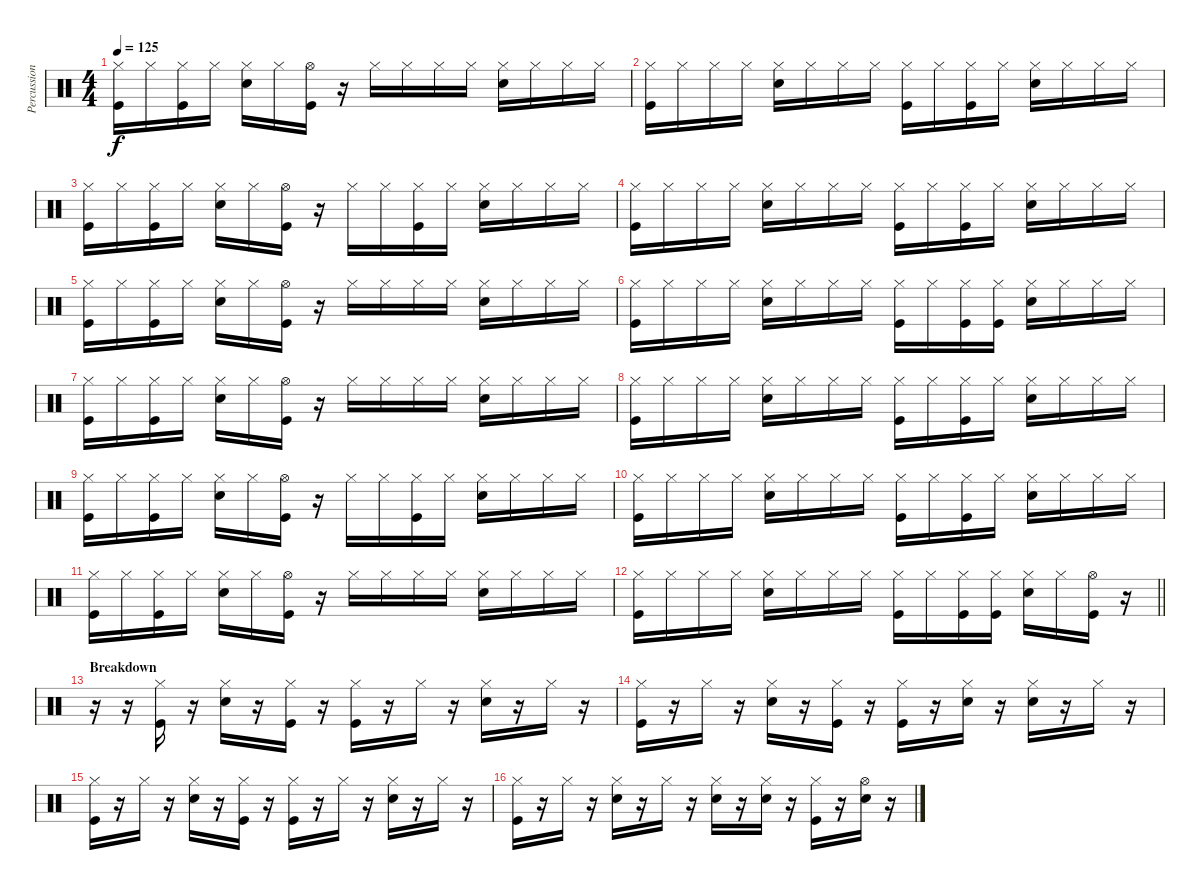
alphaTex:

\track ("Percussion" "Percussion") {instrument percussion bank 177}
\staff {score}
\articulation defaults
\ts (4 4)
\tempo 125
\clef neutral
\ks c
("Hi-Hat (closed)" "Kick (hit)").16{dy f} "Hi-Hat (closed)".16 ("Hi-Hat (closed)" "Kick (hit)").16 "Hi-Hat (closed)".16 ("Hi-Hat (closed)" "Snare (hit) 2").16 "Hi-Hat (closed)".16 ("Hi-Hat (open)" "Kick (hit)").16 r.16 "Hi-Hat (closed)".16 "Hi-Hat (closed)".16 "Hi-Hat (closed)".16 "Hi-Hat (closed)".16 ("Hi-Hat (closed)" "Snare (hit) 2").16 "Hi-Hat (closed)".16 "Hi-Hat (closed)".16 "Hi-Hat (closed)".16 |
("Hi-Hat (closed)" "Kick (hit)").16 "Hi-Hat (closed)".16 "Hi-Hat (closed)".16 "Hi-Hat (closed)".16 ("Hi-Hat (closed)" "Snare (hit) 2").16 "Hi-Hat (closed)".16 "Hi-Hat (closed)".16 "Hi-Hat (closed)".16 ("Hi-Hat (closed)" "Kick (hit)").16 "Hi-Hat (closed)".16 ("Hi-Hat (closed)" "Kick (hit)").16 "Hi-Hat (closed)".16 ("Hi-Hat (closed)" "Snare (hit) 2").16 "Hi-Hat (closed)".16 "Hi-Hat (closed)".16 "Hi-Hat (closed)".16 |
("Hi-Hat (closed)" "Kick (hit)").16 "Hi-Hat (closed)".16 ("Hi-Hat (closed)" "Kick (hit)").16 "Hi-Hat (closed)".16 ("Hi-Hat (closed)" "Snare (hit) 2").16 "Hi-Hat (closed)".16 ("Hi-Hat (open)" "Kick (hit)").16 r.16 "Hi-Hat (closed)".16 "Hi-Hat (closed)".16 ("Hi-Hat (closed)" "Kick (hit)").16 "Hi-Hat (closed)".16 ("Hi-Hat (closed)" "Snare (hit) 2").16 "Hi-Hat (closed)".16 "Hi-Hat (closed)".16 "Hi-Hat (closed)".16 |
("Hi-Hat (closed)" "Kick (hit)").16 "Hi-Hat (closed)".16 "Hi-Hat (closed)".16 "Hi-Hat (closed)".16 ("Hi-Hat (closed)" "Snare (hit) 2").16 "Hi-Hat (closed)".16 "Hi-Hat (closed)".16 "Hi-Hat (closed)".16 ("Hi-Hat (closed)" "Kick (hit)").16 "Hi-Hat (closed)".16 ("Hi-Hat (closed)" "Kick (hit)").16 "Hi-Hat (closed)".16 ("Hi-Hat (closed)" "Snare (hit) 2").16 "Hi-Hat (closed)".16 "Hi-Hat (closed)".16 "Hi-Hat (closed)".16 |
("Hi-Hat (closed)" "Kick (hit)").16 "Hi-Hat (closed)".16 ("Hi-Hat (closed)" "Kick (hit)").16 "Hi-Hat (closed)".16 ("Hi-Hat (closed)" "Snare (hit) 2").16 "Hi-Hat (closed)".16 ("Hi-Hat (open)" "Kick (hit)").16 r.16 "Hi-Hat (closed)".16 "Hi-Hat (closed)".16 "Hi-Hat (closed)".16 "Hi-Hat (closed)".16 ("Hi-Hat (closed)" "Snare (hit) 2").16 "Hi-Hat (closed)".16 "Hi-Hat (closed)".16 "Hi-Hat (closed)".16 |
("Hi-Hat (closed)" "Kick (hit)").16 "Hi-Hat (closed)".16 "Hi-Hat (closed)".16 "Hi-Hat (closed)".16 ("Hi-Hat (closed)" "Snare (hit) 2").16 "Hi-Hat (closed)".16 "Hi-Hat (closed)".16 "Hi-Hat (closed)".16 ("Hi-Hat (closed)" "Kick (hit)").16 "Hi-Hat (closed)".16 ("Hi-Hat (closed)" "Kick (hit)").16 ("Hi-Hat (closed)" "Kick (hit)").16 ("Hi-Hat (closed)" "Snare (hit) 2").16 "Hi-Hat (closed)".16 "Hi-Hat (closed)".16 "Hi-Hat (closed)".16 |
("Hi-Hat (closed)" "Kick (hit)").16 "Hi-Hat (closed)".16 ("Hi-Hat (closed)" "Kick (hit)").16 "Hi-Hat (closed)".16 ("Hi-Hat (closed)" "Snare (hit) 2").16 "Hi-Hat (closed)".16 ("Hi-Hat (open)" "Kick (hit)").16 r.16 "Hi-Hat (closed)".16 "Hi-Hat (closed)".16 "Hi-Hat (closed)".16 "Hi-Hat (closed)".16 ("Hi-Hat (closed)" "Snare (hit) 2").16 "Hi-Hat (closed)".16 "Hi-Hat (closed)".16 "Hi-Hat (closed)".16 |
("Hi-Hat (closed)" "Kick (hit)").16 "Hi-Hat (closed)".16 "Hi-Hat (closed)".16 "Hi-Hat (closed)".16 ("Hi-Hat (closed)" "Snare (hit) 2").16 "Hi-Hat (closed)".16 "Hi-Hat (closed)".16 "Hi-Hat (closed)".16 ("Hi-Hat (closed)" "Kick (hit)").16 "Hi-Hat (closed)".16 ("Hi-Hat (closed)" "Kick (hit)").16 "Hi-Hat (closed)".16 ("Hi-Hat (closed)" "Snare (hit) 2").16 "Hi-Hat (closed)".16 "Hi-Hat (closed)".16 "Hi-Hat (closed)".16 |
("Hi-Hat (closed)" "Kick (hit)").16 "Hi-Hat (closed)".16 ("Hi-Hat (closed)" "Kick (hit)").16 "Hi-Hat (closed)".16 ("Hi-Hat (closed)" "Snare (hit) 2").16 "Hi-Hat (closed)".16 ("Hi-Hat (open)" "Kick (hit)").16 r.16 "Hi-Hat (closed)".16 "Hi-Hat (closed)".16 ("Hi-Hat (closed)" "Kick (hit)").16 "Hi-Hat (closed)".16 ("Hi-Hat (closed)" "Snare (hit) 2").16 "Hi-Hat (closed)".16 "Hi-Hat (closed)".16 "Hi-Hat (closed)".16 |
("Hi-Hat (closed)" "Kick (hit)").16 "Hi-Hat (closed)".16 "Hi-Hat (closed)".16 "Hi-Hat (closed)".16 ("Hi-Hat (closed)" "Snare (hit) 2").16 "Hi-Hat (closed)".16 "Hi-Hat (closed)".16 "Hi-Hat (closed)".16 ("Hi-Hat (closed)" "Kick (hit)").16 "Hi-Hat (closed)".16 ("Hi-Hat (closed)" "Kick (hit)").16 "Hi-Hat (closed)".16 ("Hi-Hat (closed)" "Snare (hit) 2").16 "Hi-Hat (closed)".16 "Hi-Hat (closed)".16 "Hi-Hat (closed)".16 |
("Hi-Hat (closed)" "Kick (hit)").16 "Hi-Hat (closed)".16 ("Hi-Hat (closed)" "Kick (hit)").16 "Hi-Hat (closed)".16 ("Hi-Hat (closed)" "Snare (hit) 2").16 "Hi-Hat (closed)".16 ("Hi-Hat (open)" "Kick (hit)").16 r.16 "Hi-Hat (closed)".16 "Hi-Hat (closed)".16 "Hi-Hat (closed)".16 "Hi-Hat (closed)".16 ("Hi-Hat (closed)" "Snare (hit) 2").16 "Hi-Hat (closed)".16 "Hi-Hat (closed)".16 "Hi-Hat (closed)".16 |
\barLineRight lightlight
("Hi-Hat (closed)" "Kick (hit)").16 "Hi-Hat (closed)".16 "Hi-Hat (closed)".16 "Hi-Hat (closed)".16 ("Hi-Hat (closed)" "Snare (hit) 2").16 "Hi-Hat (closed)".16 "Hi-Hat (closed)".16 "Hi-Hat (closed)".16 ("Hi-Hat (closed)" "Kick (hit)").16 "Hi-Hat (closed)".16 ("Hi-Hat (closed)" "Kick (hit)").16 ("Hi-Hat (closed)" "Kick (hit)").16 ("Hi-Hat (closed)" "Snare (hit) 2").16 "Hi-Hat (closed)".16 ("Hi-Hat (open)" "Kick (hit)").16 r.16 |
\section ("" "Breakdown")
r.16 r.16 ("Hi-Hat (closed)" "Kick (hit)").16 r.16 ("Hi-Hat (closed)" "Snare (hit) 2").16 r.16 ("Hi-Hat (closed)" "Kick (hit)").16 r.16 ("Hi-Hat (closed)" "Kick (hit)").16 r.16 "Hi-Hat (closed)".16 r.16 ("Hi-Hat (closed)" "Snare (hit) 2").16 r.16 "Hi-Hat (closed)".16 r.16 |
("Hi-Hat (closed)" "Kick (hit)").16 r.16 "Hi-Hat (closed)".16 r.16 ("Hi-Hat (closed)" "Snare (hit) 2").16 r.16 ("Hi-Hat (closed)" "Kick (hit)").16 r.16 ("Hi-Hat (closed)" "Kick (hit)").16 r.16 ("Hi-Hat (closed)" "Snare (hit) 2").16 r.16 ("Hi-Hat (closed)" "Snare (hit) 2").16 r.16 "Hi-Hat (closed)".16 r.16 |
("Hi-Hat (closed)" "Kick (hit)").16 r.16 "Hi-Hat (closed)".16 r.16 ("Hi-Hat (closed)" "Snare (hit) 2").16 r.16 ("Hi-Hat (closed)" "Kick (hit)").16 r.16 ("Hi-Hat (closed)" "Kick (hit)").16 r.16 "Hi-Hat (closed)".16 r.16 ("Hi-Hat (closed)" "Snare (hit) 2").16 r.16 "Hi-Hat (closed)".16 r.16 |
("Hi-Hat (closed)" "Kick (hit)").16 r.16 "Hi-Hat (closed)".16 r.16 ("Hi-Hat (closed)" "Snare (hit) 2").16 r.16 "Hi-Hat (closed)".16 r.16 ("Hi-Hat (closed)" "Snare (hit) 2").16 r.16 ("Hi-Hat (closed)" "Snare (hit) 2").16 r.16 ("Hi-Hat (closed)" "Kick (hit)").16 r.16 ("Hi-Hat (open)" "Snare (hit) 2").16 r.16
